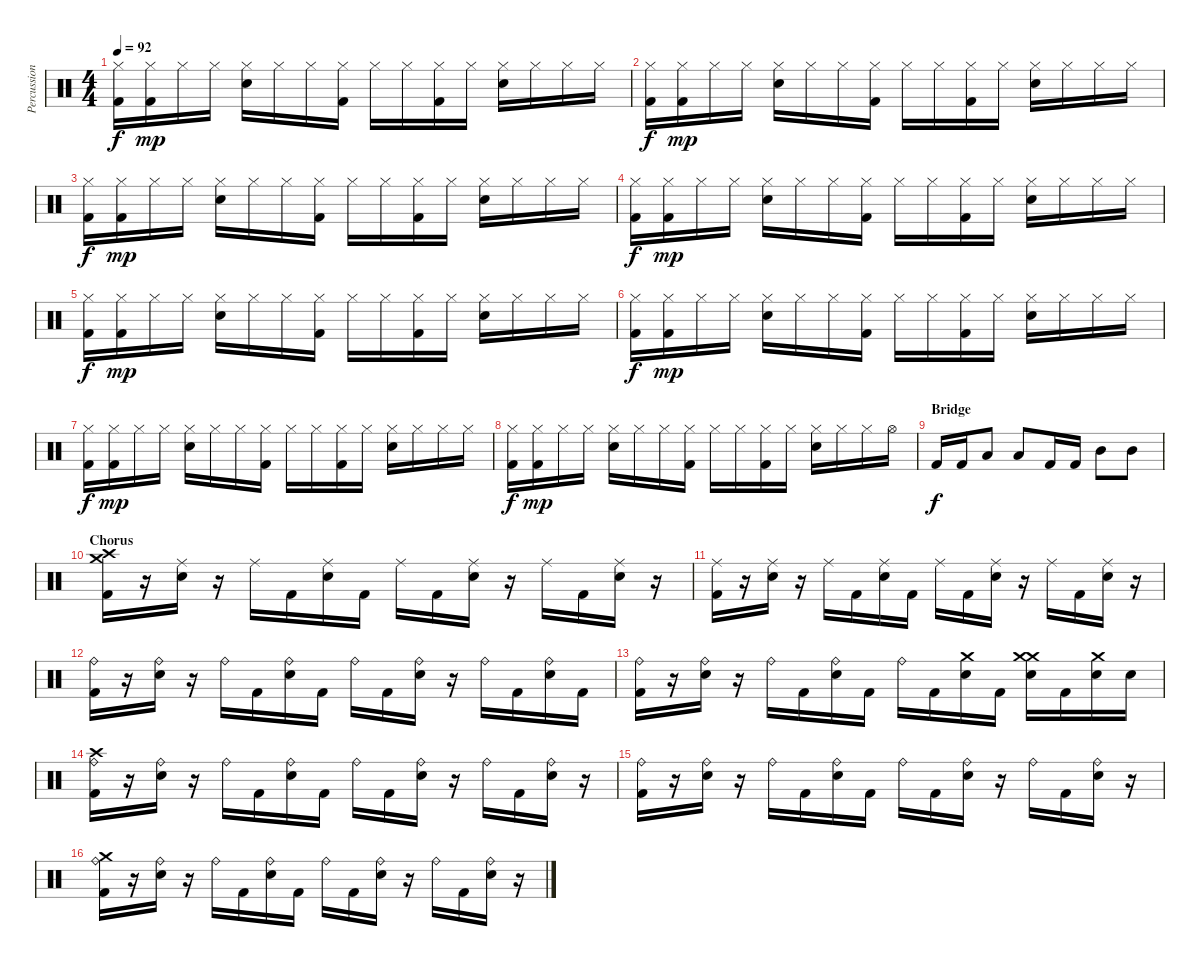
\track ("Percussion" "Percussion") {instrument percussion}
\staff {score}
\articulation defaults
\ts (4 4)
\tempo 92
\clef neutral
\ks c
("Hi-Hat (closed)" "Kick (hit) 2").16{dy f} ("Hi-Hat (closed)" "Kick (hit) 2").16{dy mp} "Hi-Hat (closed)".16 "Hi-Hat (closed)".16 ("Hi-Hat (closed)" "Snare (hit) 2").16 "Hi-Hat (closed)".16 "Hi-Hat (closed)".16 ("Hi-Hat (closed)" "Kick (hit) 2").16 "Hi-Hat (closed)".16 "Hi-Hat (closed)".16 ("Hi-Hat (closed)" "Kick (hit) 2").16 "Hi-Hat (closed)".16 ("Hi-Hat (closed)" "Snare (hit) 2").16 "Hi-Hat (closed)".16 "Hi-Hat (closed)".16 "Hi-Hat (closed)".16 |
("Hi-Hat (closed)" "Kick (hit) 2").16{dy f} ("Hi-Hat (closed)" "Kick (hit) 2").16{dy mp} "Hi-Hat (closed)".16 "Hi-Hat (closed)".16 ("Hi-Hat (closed)" "Snare (hit) 2").16 "Hi-Hat (closed)".16 "Hi-Hat (closed)".16 ("Hi-Hat (closed)" "Kick (hit) 2").16 "Hi-Hat (closed)".16 "Hi-Hat (closed)".16 ("Hi-Hat (closed)" "Kick (hit) 2").16 "Hi-Hat (closed)".16 ("Hi-Hat (closed)" "Snare (hit) 2").16 "Hi-Hat (closed)".16 "Hi-Hat (closed)".16 "Hi-Hat (closed)".16 |
("Hi-Hat (closed)" "Kick (hit) 2").16{dy f} ("Hi-Hat (closed)" "Kick (hit) 2").16{dy mp} "Hi-Hat (closed)".16 "Hi-Hat (closed)".16 ("Hi-Hat (closed)" "Snare (hit) 2").16 "Hi-Hat (closed)".16 "Hi-Hat (closed)".16 ("Hi-Hat (closed)" "Kick (hit) 2").16 "Hi-Hat (closed)".16 "Hi-Hat (closed)".16 ("Hi-Hat (closed)" "Kick (hit) 2").16 "Hi-Hat (closed)".16 ("Hi-Hat (closed)" "Snare (hit) 2").16 "Hi-Hat (closed)".16 "Hi-Hat (closed)".16 "Hi-Hat (closed)".16 |
("Hi-Hat (closed)" "Kick (hit) 2").16{dy f} ("Hi-Hat (closed)" "Kick (hit) 2").16{dy mp} "Hi-Hat (closed)".16 "Hi-Hat (closed)".16 ("Hi-Hat (closed)" "Snare (hit) 2").16 "Hi-Hat (closed)".16 "Hi-Hat (closed)".16 ("Hi-Hat (closed)" "Kick (hit) 2").16 "Hi-Hat (closed)".16 "Hi-Hat (closed)".16 ("Hi-Hat (closed)" "Kick (hit) 2").16 "Hi-Hat (closed)".16 ("Hi-Hat (closed)" "Snare (hit) 2").16 "Hi-Hat (closed)".16 "Hi-Hat (closed)".16 "Hi-Hat (closed)".16 |
("Hi-Hat (closed)" "Kick (hit) 2").16{dy f} ("Hi-Hat (closed)" "Kick (hit) 2").16{dy mp} "Hi-Hat (closed)".16 "Hi-Hat (closed)".16 ("Hi-Hat (closed)" "Snare (hit) 2").16 "Hi-Hat (closed)".16 "Hi-Hat (closed)".16 ("Hi-Hat (closed)" "Kick (hit) 2").16 "Hi-Hat (closed)".16 "Hi-Hat (closed)".16 ("Hi-Hat (closed)" "Kick (hit) 2").16 "Hi-Hat (closed)".16 ("Hi-Hat (closed)" "Snare (hit) 2").16 "Hi-Hat (closed)".16 "Hi-Hat (closed)".16 "Hi-Hat (closed)".16 |
("Hi-Hat (closed)" "Kick (hit) 2").16{dy f} ("Hi-Hat (closed)" "Kick (hit) 2").16{dy mp} "Hi-Hat (closed)".16 "Hi-Hat (closed)".16 ("Hi-Hat (closed)" "Snare (hit) 2").16 "Hi-Hat (closed)".16 "Hi-Hat (closed)".16 ("Hi-Hat (closed)" "Kick (hit) 2").16 "Hi-Hat (closed)".16 "Hi-Hat (closed)".16 ("Hi-Hat (closed)" "Kick (hit) 2").16 "Hi-Hat (closed)".16 ("Hi-Hat (closed)" "Snare (hit) 2").16 "Hi-Hat (closed)".16 "Hi-Hat (closed)".16 "Hi-Hat (closed)".16 |
("Hi-Hat (closed)" "Kick (hit) 2").16{dy f} ("Hi-Hat (closed)" "Kick (hit) 2").16{dy mp} "Hi-Hat (closed)".16 "Hi-Hat (closed)".16 ("Hi-Hat (closed)" "Snare (hit) 2").16 "Hi-Hat (closed)".16 "Hi-Hat (closed)".16 ("Hi-Hat (closed)" "Kick (hit) 2").16 "Hi-Hat (closed)".16 "Hi-Hat (closed)".16 ("Hi-Hat (closed)" "Kick (hit) 2").16 "Hi-Hat (closed)".16 ("Hi-Hat (closed)" "Snare (hit) 2").16 "Hi-Hat (closed)".16 "Hi-Hat (closed)".16 "Hi-Hat (closed)".16 |
("Hi-Hat (closed)" "Kick (hit) 2").16{dy f} ("Hi-Hat (closed)" "Kick (hit) 2").16{dy mp} "Hi-Hat (closed)".16 "Hi-Hat (closed)".16 ("Hi-Hat (closed)" "Snare (hit) 2").16 "Hi-Hat (closed)".16 "Hi-Hat (closed)".16 ("Hi-Hat (closed)" "Kick (hit) 2").16 "Hi-Hat (closed)".16 "Hi-Hat (closed)".16 ("Hi-Hat (closed)" "Kick (hit) 2").16 "Hi-Hat (closed)".16 ("Hi-Hat (closed)" "Snare (hit) 2").16 "Hi-Hat (closed)".16 "Hi-Hat (closed)".16 "Hi-Hat (open)".16 |
\section ("" "Bridge")
"Kick (hit) 2".16{dy f} "Kick (hit) 2".16 "Low Tom (hit)".8 "Low Tom (hit)".8 "Kick (hit) 2".16 "Kick (hit) 2".16 "Mid Tom (hit)".8 "Mid Tom (hit)".8 |
\section ("" "Chorus")
("Crash high (hit)" "Crash medium (hit)" "Kick (hit) 2").16 r.16 ("Ride (middle)" "Snare (hit) 2").16 r.16 "Ride (middle)".16 "Kick (hit) 2".16 ("Ride (middle)" "Snare (hit) 2").16 "Kick (hit) 2".16 "Ride (middle)".16 "Kick (hit) 2".16 ("Ride (middle)" "Snare (hit) 2").16 r.16 "Ride (middle)".16 "Kick (hit) 2".16 ("Ride (middle)" "Snare (hit) 2").16 r.16 |
("Ride (middle)" "Kick (hit) 2").16 r.16 ("Ride (middle)" "Snare (hit) 2").16 r.16 "Ride (middle)".16 "Kick (hit) 2".16 ("Ride (middle)" "Snare (hit) 2").16 "Kick (hit) 2".16 "Ride (middle)".16 "Kick (hit) 2".16 ("Ride (middle)" "Snare (hit) 2").16 r.16 "Ride (middle)".16 "Kick (hit) 2".16 ("Ride (middle)" "Snare (hit) 2").16 r.16 |
("Ride (bell)" "Kick (hit) 2").16 r.16 ("Ride (bell)" "Snare (hit) 2").16 r.16 "Ride (bell)".16 "Kick (hit) 2".16 ("Ride (bell)" "Snare (hit) 2").16 "Kick (hit) 2".16 "Ride (bell)".16 "Kick (hit) 2".16 ("Ride (bell)" "Snare (hit) 2").16 r.16 "Ride (bell)".16 "Kick (hit) 2".16 ("Ride (bell)" "Snare (hit) 2").16 "Kick (hit) 2".16 |
("Ride (bell)" "Kick (hit) 2").16 r.16 ("Ride (bell)" "Snare (hit) 2").16 r.16 "Ride (bell)".16 "Kick (hit) 2".16 ("Ride (bell)" "Snare (hit) 2").16 "Kick (hit) 2".16 "Ride (bell)".16 "Kick (hit) 2".16 ("Crash medium (hit)" "Snare (hit) 2").16 "Kick (hit) 2".16 ("Crash medium (hit)" "Crash medium (hit)" "Snare (hit) 2").16 "Kick (hit) 2".16 ("Crash medium (hit)" "Snare (hit) 2").16 "Snare (hit) 2".16 |
("Ride (bell)" "Crash high (hit)" "Kick (hit) 2").16 r.16 ("Ride (bell)" "Snare (hit) 2").16 r.16 "Ride (bell)".16 "Kick (hit) 2".16 ("Ride (bell)" "Snare (hit) 2").16 "Kick (hit) 2".16 "Ride (bell)".16 "Kick (hit) 2".16 ("Ride (bell)" "Snare (hit) 2").16 r.16 "Ride (bell)".16 "Kick (hit) 2".16 ("Ride (bell)" "Snare (hit) 2").16 r.16 |
("Ride (bell)" "Kick (hit) 2").16 r.16 ("Ride (bell)" "Snare (hit) 2").16 r.16 "Ride (bell)".16 "Kick (hit) 2".16 ("Ride (bell)" "Snare (hit) 2").16 "Kick (hit) 2".16 "Ride (bell)".16 "Kick (hit) 2".16 ("Ride (bell)" "Snare (hit) 2").16 r.16 "Ride (bell)".16 "Kick (hit) 2".16 ("Ride (bell)" "Snare (hit) 2").16 r.16 |
("Ride (bell)" "Crash medium (hit)" "Kick (hit) 2").16 r.16 ("Ride (bell)" "Snare (hit) 2").16 r.16 "Ride (bell)".16 "Kick (hit) 2".16 ("Ride (bell)" "Snare (hit) 2").16 "Kick (hit) 2".16 "Ride (bell)".16 "Kick (hit) 2".16 ("Ride (bell)" "Snare (hit) 2").16 r.16 "Ride (bell)".16 "Kick (hit) 2".16 ("Ride (bell)" "Snare (hit) 2").16 r.16
